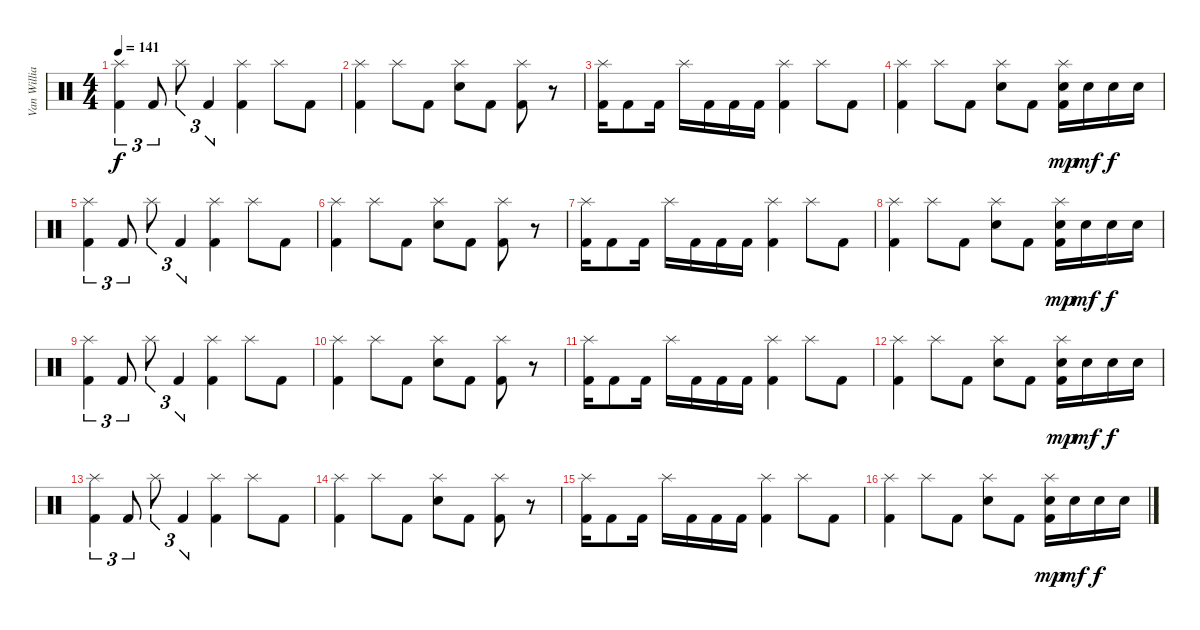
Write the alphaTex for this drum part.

\track ("Van Williams" "Van Willia") {instrument percussion}
\staff {score}
\articulation defaults
\ts (4 4)
\tempo 141
\clef neutral
\ks c
("Splash (hit)" "Kick (hit) 2").4{tu (3 2) dy f} "Kick (hit) 2".8{tu (3 2)} "Splash (hit)".8{tu (3 2)} "Kick (hit) 2".4{tu (3 2)} ("Splash (hit)" "Kick (hit) 2").4 "Splash (hit)".8 "Kick (hit) 2".8 |
("Splash (hit)" "Kick (hit) 2").4 "Splash (hit)".8 "Kick (hit) 2".8 ("Splash (hit)" "Electric Snare (hit)").8 "Kick (hit) 2".8 ("Splash (hit)" "Kick (hit) 2").8 r.8 |
("Splash (hit)" "Kick (hit) 2").16 "Kick (hit) 2".8 "Kick (hit) 2".16 "Splash (hit)".16 "Kick (hit) 2".16 "Kick (hit) 2".16 "Kick (hit) 2".16 ("Splash (hit)" "Kick (hit) 2").4 "Splash (hit)".8 "Kick (hit) 2".8 |
("Splash (hit)" "Kick (hit) 2").4 "Splash (hit)".8 "Kick (hit) 2".8 ("Splash (hit)" "Electric Snare (hit)").8 "Kick (hit) 2".8 ("Splash (hit)" "Electric Snare (hit)" "Kick (hit) 2").16{dy mp} "Electric Snare (hit)".16{dy mf} "Electric Snare (hit)".16{dy f} "Electric Snare (hit)".16 |
("Splash (hit)" "Kick (hit) 2").4{tu (3 2)} "Kick (hit) 2".8{tu (3 2)} "Splash (hit)".8{tu (3 2)} "Kick (hit) 2".4{tu (3 2)} ("Splash (hit)" "Kick (hit) 2").4 "Splash (hit)".8 "Kick (hit) 2".8 |
("Splash (hit)" "Kick (hit) 2").4 "Splash (hit)".8 "Kick (hit) 2".8 ("Splash (hit)" "Electric Snare (hit)").8 "Kick (hit) 2".8 ("Splash (hit)" "Kick (hit) 2").8 r.8 |
("Splash (hit)" "Kick (hit) 2").16 "Kick (hit) 2".8 "Kick (hit) 2".16 "Splash (hit)".16 "Kick (hit) 2".16 "Kick (hit) 2".16 "Kick (hit) 2".16 ("Splash (hit)" "Kick (hit) 2").4 "Splash (hit)".8 "Kick (hit) 2".8 |
("Splash (hit)" "Kick (hit) 2").4 "Splash (hit)".8 "Kick (hit) 2".8 ("Splash (hit)" "Electric Snare (hit)").8 "Kick (hit) 2".8 ("Splash (hit)" "Electric Snare (hit)" "Kick (hit) 2").16{dy mp} "Electric Snare (hit)".16{dy mf} "Electric Snare (hit)".16{dy f} "Electric Snare (hit)".16 |
("Splash (hit)" "Kick (hit) 2").4{tu (3 2)} "Kick (hit) 2".8{tu (3 2)} "Splash (hit)".8{tu (3 2)} "Kick (hit) 2".4{tu (3 2)} ("Splash (hit)" "Kick (hit) 2").4 "Splash (hit)".8 "Kick (hit) 2".8 |
("Splash (hit)" "Kick (hit) 2").4 "Splash (hit)".8 "Kick (hit) 2".8 ("Splash (hit)" "Electric Snare (hit)").8 "Kick (hit) 2".8 ("Splash (hit)" "Kick (hit) 2").8 r.8 |
("Splash (hit)" "Kick (hit) 2").16 "Kick (hit) 2".8 "Kick (hit) 2".16 "Splash (hit)".16 "Kick (hit) 2".16 "Kick (hit) 2".16 "Kick (hit) 2".16 ("Splash (hit)" "Kick (hit) 2").4 "Splash (hit)".8 "Kick (hit) 2".8 |
("Splash (hit)" "Kick (hit) 2").4 "Splash (hit)".8 "Kick (hit) 2".8 ("Splash (hit)" "Electric Snare (hit)").8 "Kick (hit) 2".8 ("Splash (hit)" "Electric Snare (hit)" "Kick (hit) 2").16{dy mp} "Electric Snare (hit)".16{dy mf} "Electric Snare (hit)".16{dy f} "Electric Snare (hit)".16 |
("Splash (hit)" "Kick (hit) 2").4{tu (3 2)} "Kick (hit) 2".8{tu (3 2)} "Splash (hit)".8{tu (3 2)} "Kick (hit) 2".4{tu (3 2)} ("Splash (hit)" "Kick (hit) 2").4 "Splash (hit)".8 "Kick (hit) 2".8 |
("Splash (hit)" "Kick (hit) 2").4 "Splash (hit)".8 "Kick (hit) 2".8 ("Splash (hit)" "Electric Snare (hit)").8 "Kick (hit) 2".8 ("Splash (hit)" "Kick (hit) 2").8 r.8 |
("Splash (hit)" "Kick (hit) 2").16 "Kick (hit) 2".8 "Kick (hit) 2".16 "Splash (hit)".16 "Kick (hit) 2".16 "Kick (hit) 2".16 "Kick (hit) 2".16 ("Splash (hit)" "Kick (hit) 2").4 "Splash (hit)".8 "Kick (hit) 2".8 |
("Splash (hit)" "Kick (hit) 2").4 "Splash (hit)".8 "Kick (hit) 2".8 ("Splash (hit)" "Electric Snare (hit)").8 "Kick (hit) 2".8 ("Splash (hit)" "Electric Snare (hit)" "Kick (hit) 2").16{dy mp} "Electric Snare (hit)".16{dy mf} "Electric Snare (hit)".16{dy f} "Electric Snare (hit)".16
